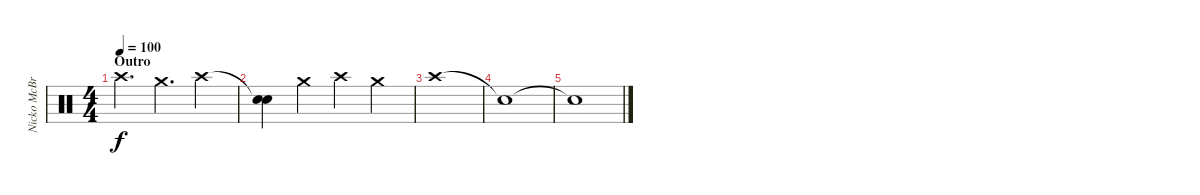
\track ("Nicko McBrain" "Nicko McBr") {instrument percussion}
\staff {score}
\articulation defaults
\ts (4 4)
\section ("" "Outro")
\tempo 100
\clef neutral
\ks c "Crash high (hit)".4{d dy f} "Crash medium (hit)".4{d} "Crash high (hit)".4
|
("Snare (hit)"{t} "Snare (hit)"{t}).4 "Crash medium (hit)".4 "Crash high (hit)".4 "Crash medium (hit)".4 |
"Crash high (hit)".1 |
"Snare (hit)"{t}.1 |
"Snare (hit)"{t}.1
